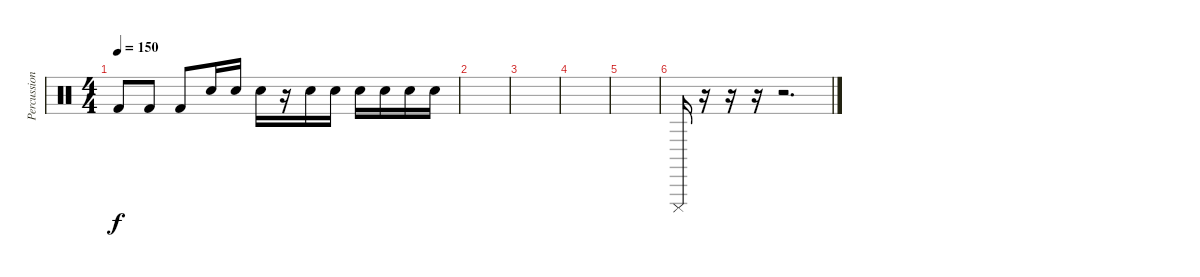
\track ("Percussions" "Percussion") {instrument percussion}
\staff {score}
\articulation defaults
\ts (4 4)
\tempo 150
\clef neutral
\ks c "Kick (hit) 2".8{dy f} "Kick (hit) 2".8 "Kick (hit) 2".8 "Snare (hit) 2".16 "Snare (hit) 2".16 "Snare (hit) 2".16
r.16 "Snare (hit) 2".16 "Snare (hit) 2".16 "Snare (hit) 2".16 "Snare (hit) 2".16 "Snare (hit) 2".16 "Snare (hit) 2".16 |
|
|
|
|
"Cuica (mute)".16 r.16 r.16 r.16 r.2{d}
